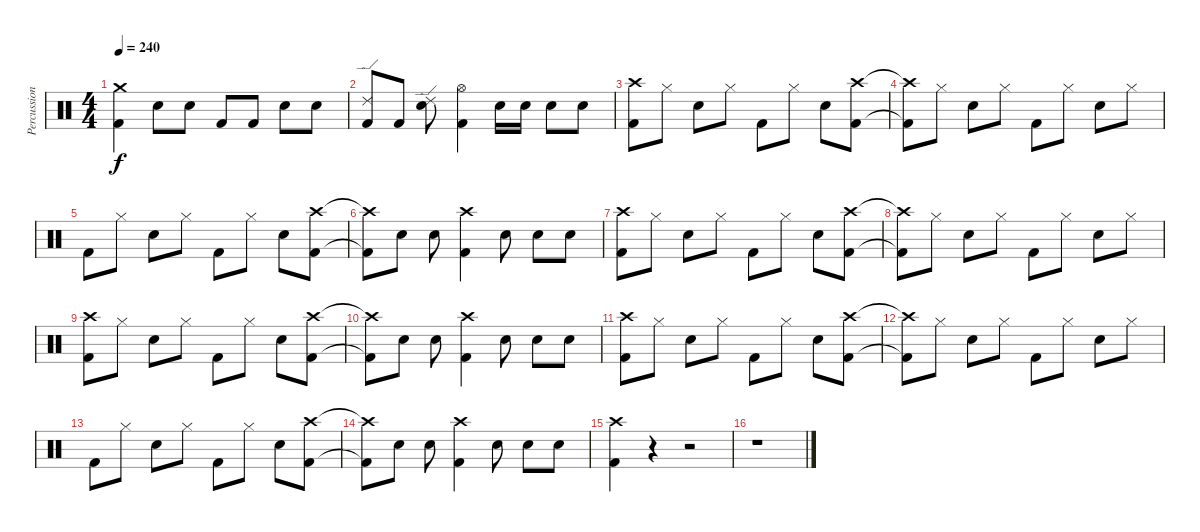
\track ("Percussion" "Percussion") {instrument percussion}
\staff {score}
\articulation defaults
\ts (4 4)
\tempo 240
\clef neutral
\ks c
("Crash medium (hit)" "Kick (hit) 2").4{dy f} "Electric Snare (hit)".8 "Electric Snare (hit)".8 "Kick (hit) 2".8 "Kick (hit) 2".8 "Electric Snare (hit)".8 "Electric Snare (hit)".8 |
("Ride (edge) 2" "Kick (hit) 2").8 "Kick (hit) 2".8 ("Ride (edge) 2" "Electric Snare (hit)").8 ("Hi-Hat (open)" "Kick (hit) 2").4 "Snare (hit) 2".16 "Snare (hit) 2".16 "Snare (hit) 2".8 "Snare (hit) 2".8 |
("Crash high (hit)" "Kick (hit) 2").8 "Hi-Hat (closed)".8 "Snare (hit) 2".8 "Hi-Hat (closed)".8 "Kick (hit) 2".8 "Hi-Hat (closed)".8 "Snare (hit) 2".8 ("Crash high (hit)" "Kick (hit) 2").8 |
("Crash high (hit)"{t} "Kick (hit) 2"{t}).8 "Hi-Hat (closed)".8 "Snare (hit) 2".8 "Hi-Hat (closed)".8 "Kick (hit) 2".8 "Hi-Hat (closed)".8 "Snare (hit) 2".8 "Hi-Hat (closed)".8 |
"Kick (hit) 2".8 "Hi-Hat (closed)".8 "Snare (hit) 2".8 "Hi-Hat (closed)".8 "Kick (hit) 2".8 "Hi-Hat (closed)".8 "Snare (hit) 2".8 ("Crash high (hit)" "Kick (hit) 2").8 |
("Crash high (hit)"{t} "Kick (hit) 2"{t}).8 "Snare (hit) 2".8 "Snare (hit) 2".8 ("Crash high (hit)" "Kick (hit) 2").4 "Snare (hit) 2".8 "Snare (hit) 2".8 "Snare (hit) 2".8 |
("Crash high (hit)" "Kick (hit) 2").8 "Hi-Hat (closed)".8 "Snare (hit) 2".8 "Hi-Hat (closed)".8 "Kick (hit) 2".8 "Hi-Hat (closed)".8 "Snare (hit) 2".8 ("Crash high (hit)" "Kick (hit) 2").8 |
("Crash high (hit)"{t} "Kick (hit) 2"{t}).8 "Hi-Hat (closed)".8 "Snare (hit) 2".8 "Hi-Hat (closed)".8 "Kick (hit) 2".8 "Hi-Hat (closed)".8 "Snare (hit) 2".8 "Hi-Hat (closed)".8 |
("Crash high (hit)" "Kick (hit) 2").8 "Hi-Hat (closed)".8 "Snare (hit) 2".8 "Hi-Hat (closed)".8 "Kick (hit) 2".8 "Hi-Hat (closed)".8 "Snare (hit) 2".8 ("Crash high (hit)" "Kick (hit) 2").8 |
("Crash high (hit)"{t} "Kick (hit) 2"{t}).8 "Snare (hit) 2".8 "Snare (hit) 2".8 ("Crash high (hit)" "Kick (hit) 2").4 "Snare (hit) 2".8 "Snare (hit) 2".8 "Snare (hit) 2".8 |
("Crash high (hit)" "Kick (hit) 2").8 "Hi-Hat (closed)".8 "Snare (hit) 2".8 "Hi-Hat (closed)".8 "Kick (hit) 2".8 "Hi-Hat (closed)".8 "Snare (hit) 2".8 ("Crash high (hit)" "Kick (hit) 2").8 |
("Crash high (hit)"{t} "Kick (hit) 2"{t}).8 "Hi-Hat (closed)".8 "Snare (hit) 2".8 "Hi-Hat (closed)".8 "Kick (hit) 2".8 "Hi-Hat (closed)".8 "Snare (hit) 2".8 "Hi-Hat (closed)".8 |
"Kick (hit) 2".8 "Hi-Hat (closed)".8 "Snare (hit) 2".8 "Hi-Hat (closed)".8 "Kick (hit) 2".8 "Hi-Hat (closed)".8 "Snare (hit) 2".8 ("Crash high (hit)" "Kick (hit) 2").8 |
("Crash high (hit)"{t} "Kick (hit) 2"{t}).8 "Snare (hit) 2".8 "Snare (hit) 2".8 ("Crash high (hit)" "Kick (hit) 2").4 "Snare (hit) 2".8 "Snare (hit) 2".8 "Snare (hit) 2".8 |
("Crash high (hit)" "Kick (hit) 2").4 r.4 r.2 |
r.1
